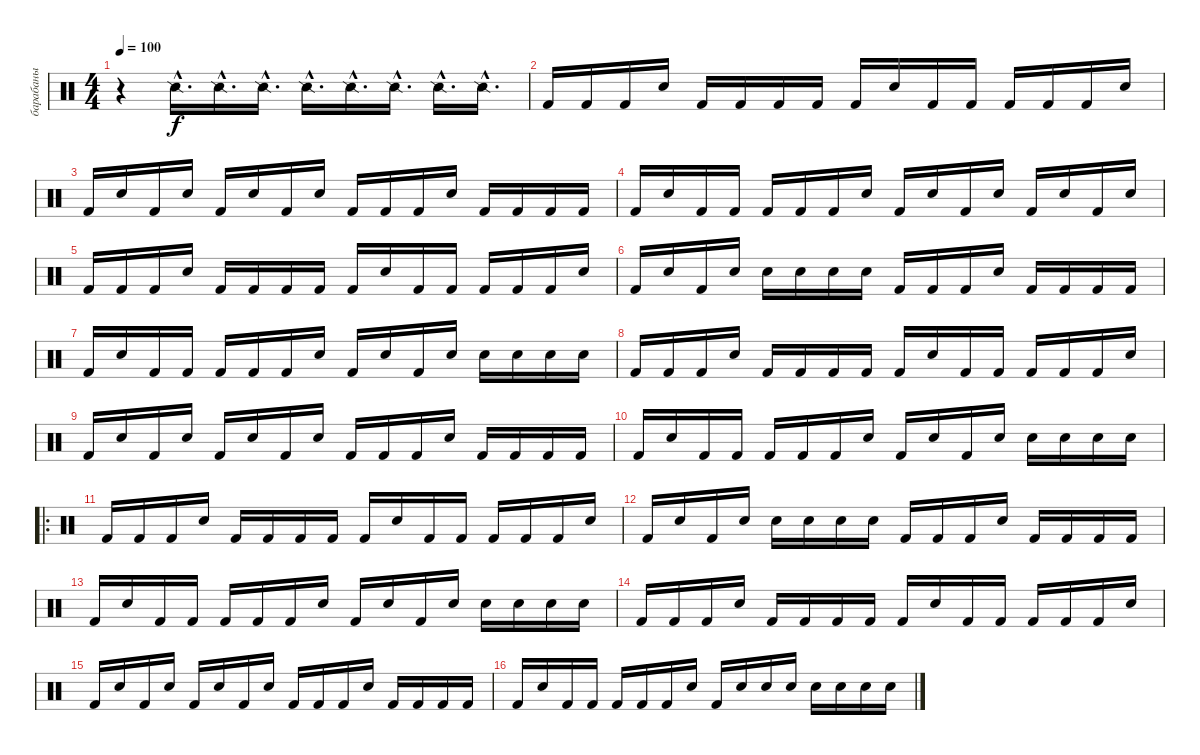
\track ("барабаны" "барабаны") {instrument percussion}
\staff {score}
\articulation defaults
\ts (4 4)
\tempo 100
\clef neutral
\ks c
r.4{dy f} "Snare (side stick) 2"{hac}.16{d} "Snare (side stick) 2"{hac}.16{d} "Snare (side stick) 2"{hac}.16{d} "Snare (side stick) 2"{hac}.16{d} "Snare (side stick) 2"{hac}.16{d} "Snare (side stick) 2"{hac}.16{d} "Snare (side stick) 2"{hac}.16{d} "Snare (side stick) 2"{hac}.16{d} |
"Kick (hit) 2".16 "Kick (hit) 2".16 "Kick (hit) 2".16 "Electric Snare (hit)".16 "Kick (hit) 2".16 "Kick (hit) 2".16 "Kick (hit) 2".16 "Kick (hit) 2".16 "Kick (hit) 2".16 "Electric Snare (hit)".16 "Kick (hit) 2".16 "Kick (hit) 2".16 "Kick (hit) 2".16 "Kick (hit) 2".16 "Kick (hit) 2".16 "Electric Snare (hit)".16 |
"Kick (hit) 2".16 "Electric Snare (hit)".16 "Kick (hit) 2".16 "Electric Snare (hit)".16 "Kick (hit) 2".16 "Electric Snare (hit)".16 "Kick (hit) 2".16 "Electric Snare (hit)".16 "Kick (hit) 2".16 "Kick (hit) 2".16 "Kick (hit) 2".16 "Electric Snare (hit)".16 "Kick (hit) 2".16 "Kick (hit) 2".16 "Kick (hit) 2".16 "Kick (hit) 2".16 |
"Kick (hit) 2".16 "Electric Snare (hit)".16 "Kick (hit) 2".16 "Kick (hit) 2".16 "Kick (hit) 2".16 "Kick (hit) 2".16 "Kick (hit) 2".16 "Electric Snare (hit)".16 "Kick (hit) 2".16 "Electric Snare (hit)".16 "Kick (hit) 2".16 "Electric Snare (hit)".16 "Kick (hit) 2".16 "Electric Snare (hit)".16 "Kick (hit) 2".16 "Electric Snare (hit)".16 |
"Kick (hit) 2".16 "Kick (hit) 2".16 "Kick (hit) 2".16 "Electric Snare (hit)".16 "Kick (hit) 2".16 "Kick (hit) 2".16 "Kick (hit) 2".16 "Kick (hit) 2".16 "Kick (hit) 2".16 "Electric Snare (hit)".16 "Kick (hit) 2".16 "Kick (hit) 2".16 "Kick (hit) 2".16 "Kick (hit) 2".16 "Kick (hit) 2".16 "Electric Snare (hit)".16 |
"Kick (hit) 2".16 "Electric Snare (hit)".16 "Kick (hit) 2".16 "Electric Snare (hit)".16 "Electric Snare (hit)".16 "Electric Snare (hit)".16 "Electric Snare (hit)".16 "Electric Snare (hit)".16 "Kick (hit) 2".16 "Kick (hit) 2".16 "Kick (hit) 2".16 "Electric Snare (hit)".16 "Kick (hit) 2".16 "Kick (hit) 2".16 "Kick (hit) 2".16 "Kick (hit) 2".16 |
"Kick (hit) 2".16 "Electric Snare (hit)".16 "Kick (hit) 2".16 "Kick (hit) 2".16 "Kick (hit) 2".16 "Kick (hit) 2".16 "Kick (hit) 2".16 "Electric Snare (hit)".16 "Kick (hit) 2".16 "Electric Snare (hit)".16 "Kick (hit) 2".16 "Electric Snare (hit)".16 "Electric Snare (hit)".16 "Electric Snare (hit)".16 "Electric Snare (hit)".16 "Electric Snare (hit)".16 |
"Kick (hit) 2".16 "Kick (hit) 2".16 "Kick (hit) 2".16 "Electric Snare (hit)".16 "Kick (hit) 2".16 "Kick (hit) 2".16 "Kick (hit) 2".16 "Kick (hit) 2".16 "Kick (hit) 2".16 "Electric Snare (hit)".16 "Kick (hit) 2".16 "Kick (hit) 2".16 "Kick (hit) 2".16 "Kick (hit) 2".16 "Kick (hit) 2".16 "Electric Snare (hit)".16 |
"Kick (hit) 2".16 "Electric Snare (hit)".16 "Kick (hit) 2".16 "Electric Snare (hit)".16 "Kick (hit) 2".16 "Electric Snare (hit)".16 "Kick (hit) 2".16 "Electric Snare (hit)".16 "Kick (hit) 2".16 "Kick (hit) 2".16 "Kick (hit) 2".16 "Electric Snare (hit)".16 "Kick (hit) 2".16 "Kick (hit) 2".16 "Kick (hit) 2".16 "Kick (hit) 2".16 |
"Kick (hit) 2".16 "Electric Snare (hit)".16 "Kick (hit) 2".16 "Kick (hit) 2".16 "Kick (hit) 2".16 "Kick (hit) 2".16 "Kick (hit) 2".16 "Electric Snare (hit)".16 "Kick (hit) 2".16 "Electric Snare (hit)".16 "Kick (hit) 2".16 "Electric Snare (hit)".16 "Electric Snare (hit)".16 "Electric Snare (hit)".16 "Electric Snare (hit)".16 "Electric Snare (hit)".16 |
\ro "Kick (hit) 2".16 "Kick (hit) 2".16 "Kick (hit) 2".16 "Electric Snare (hit)".16 "Kick (hit) 2".16 "Kick (hit) 2".16 "Kick (hit) 2".16 "Kick (hit) 2".16 "Kick (hit) 2".16 "Electric Snare (hit)".16 "Kick (hit) 2".16 "Kick (hit) 2".16 "Kick (hit) 2".16 "Kick (hit) 2".16 "Kick (hit) 2".16 "Electric Snare (hit)".16
|
"Kick (hit) 2".16 "Electric Snare (hit)".16 "Kick (hit) 2".16 "Electric Snare (hit)".16 "Electric Snare (hit)".16 "Electric Snare (hit)".16 "Electric Snare (hit)".16 "Electric Snare (hit)".16 "Kick (hit) 2".16 "Kick (hit) 2".16 "Kick (hit) 2".16 "Electric Snare (hit)".16 "Kick (hit) 2".16 "Kick (hit) 2".16 "Kick (hit) 2".16 "Kick (hit) 2".16 |
"Kick (hit) 2".16 "Electric Snare (hit)".16 "Kick (hit) 2".16 "Kick (hit) 2".16 "Kick (hit) 2".16 "Kick (hit) 2".16 "Kick (hit) 2".16 "Electric Snare (hit)".16 "Kick (hit) 2".16 "Electric Snare (hit)".16 "Kick (hit) 2".16 "Electric Snare (hit)".16 "Electric Snare (hit)".16 "Electric Snare (hit)".16 "Electric Snare (hit)".16 "Electric Snare (hit)".16 |
"Kick (hit) 2".16 "Kick (hit) 2".16 "Kick (hit) 2".16 "Electric Snare (hit)".16 "Kick (hit) 2".16 "Kick (hit) 2".16 "Kick (hit) 2".16 "Kick (hit) 2".16 "Kick (hit) 2".16 "Electric Snare (hit)".16 "Kick (hit) 2".16 "Kick (hit) 2".16 "Kick (hit) 2".16 "Kick (hit) 2".16 "Kick (hit) 2".16 "Electric Snare (hit)".16 |
"Kick (hit) 2".16 "Electric Snare (hit)".16 "Kick (hit) 2".16 "Electric Snare (hit)".16 "Kick (hit) 2".16 "Electric Snare (hit)".16 "Kick (hit) 2".16 "Electric Snare (hit)".16 "Kick (hit) 2".16 "Kick (hit) 2".16 "Kick (hit) 2".16 "Electric Snare (hit)".16 "Kick (hit) 2".16 "Kick (hit) 2".16 "Kick (hit) 2".16 "Kick (hit) 2".16 |
"Kick (hit) 2".16 "Electric Snare (hit)".16 "Kick (hit) 2".16 "Kick (hit) 2".16 "Kick (hit) 2".16 "Kick (hit) 2".16 "Kick (hit) 2".16 "Electric Snare (hit)".16 "Kick (hit) 2".16 "Electric Snare (hit)".16 "Electric Snare (hit)".16 "Electric Snare (hit)".16 "Electric Snare (hit)".16 "Electric Snare (hit)".16 "Electric Snare (hit)".16 "Electric Snare (hit)".16
